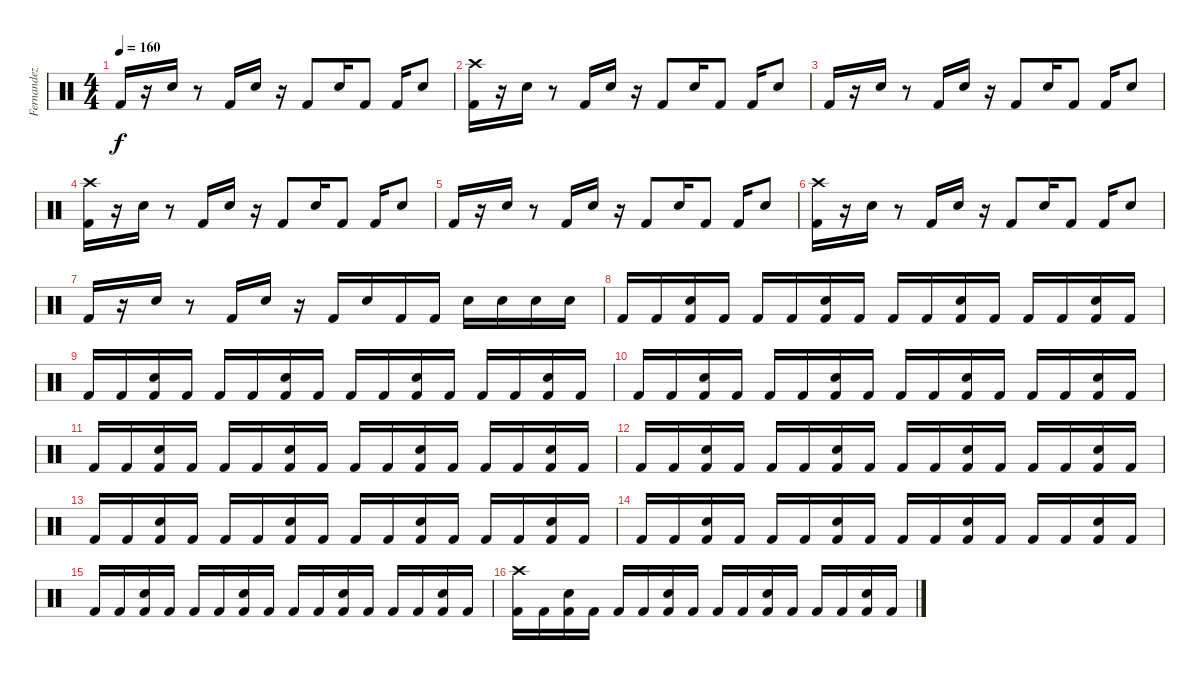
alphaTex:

\track ("Fernandez" "Fernandez") {instrument percussion}
\staff {score}
\articulation defaults
\ts (4 4)
\tempo 160
\clef neutral
\ks c "Kick (hit) 2".16{dy f}
r.16 "Snare (hit) 2".16 r.8 "Kick (hit) 2".16 "Snare (hit) 2".16 r.16 "Kick (hit) 2".8 "Snare (hit) 2".16 "Kick (hit) 2".8 "Kick (hit) 2".16 "Snare (hit) 2".8 |
("Kick (hit) 2" "Crash high (hit)").16 r.16 "Snare (hit) 2".16 r.8 "Kick (hit) 2".16 "Snare (hit) 2".16 r.16 "Kick (hit) 2".8 "Snare (hit) 2".16 "Kick (hit) 2".8 "Kick (hit) 2".16 "Snare (hit) 2".8 |
"Kick (hit) 2".16 r.16 "Snare (hit) 2".16 r.8 "Kick (hit) 2".16 "Snare (hit) 2".16 r.16 "Kick (hit) 2".8 "Snare (hit) 2".16 "Kick (hit) 2".8 "Kick (hit) 2".16 "Snare (hit) 2".8 |
("Kick (hit) 2" "Crash high (hit)").16 r.16 "Snare (hit) 2".16 r.8 "Kick (hit) 2".16 "Snare (hit) 2".16 r.16 "Kick (hit) 2".8 "Snare (hit) 2".16 "Kick (hit) 2".8 "Kick (hit) 2".16 "Snare (hit) 2".8 |
"Kick (hit) 2".16 r.16 "Snare (hit) 2".16 r.8 "Kick (hit) 2".16 "Snare (hit) 2".16 r.16 "Kick (hit) 2".8 "Snare (hit) 2".16 "Kick (hit) 2".8 "Kick (hit) 2".16 "Snare (hit) 2".8 |
("Kick (hit) 2" "Crash high (hit)").16 r.16 "Snare (hit) 2".16 r.8 "Kick (hit) 2".16 "Snare (hit) 2".16 r.16 "Kick (hit) 2".8 "Snare (hit) 2".16 "Kick (hit) 2".8 "Kick (hit) 2".16 "Snare (hit) 2".8 |
"Kick (hit) 2".16 r.16 "Snare (hit) 2".16 r.8 "Kick (hit) 2".16 "Snare (hit) 2".16 r.16 "Kick (hit) 2".16 "Snare (hit) 2".16 "Kick (hit) 2".16 "Kick (hit) 2".16 "Snare (hit) 2".16 "Snare (hit) 2".16 "Snare (hit) 2".16 "Snare (hit) 2".16 |
"Kick (hit) 2".16 "Kick (hit) 2".16 ("Snare (hit) 2" "Kick (hit) 2").16 "Kick (hit) 2".16 "Kick (hit) 2".16 "Kick (hit) 2".16 ("Snare (hit) 2" "Kick (hit) 2").16 "Kick (hit) 2".16 "Kick (hit) 2".16 "Kick (hit) 2".16 ("Snare (hit) 2" "Kick (hit) 2").16 "Kick (hit) 2".16 "Kick (hit) 2".16 "Kick (hit) 2".16 ("Snare (hit) 2" "Kick (hit) 2").16 "Kick (hit) 2".16 |
"Kick (hit) 2".16 "Kick (hit) 2".16 ("Snare (hit) 2" "Kick (hit) 2").16 "Kick (hit) 2".16 "Kick (hit) 2".16 "Kick (hit) 2".16 ("Snare (hit) 2" "Kick (hit) 2").16 "Kick (hit) 2".16 "Kick (hit) 2".16 "Kick (hit) 2".16 ("Snare (hit) 2" "Kick (hit) 2").16 "Kick (hit) 2".16 "Kick (hit) 2".16 "Kick (hit) 2".16 ("Snare (hit) 2" "Kick (hit) 2").16 "Kick (hit) 2".16 |
"Kick (hit) 2".16 "Kick (hit) 2".16 ("Snare (hit) 2" "Kick (hit) 2").16 "Kick (hit) 2".16 "Kick (hit) 2".16 "Kick (hit) 2".16 ("Snare (hit) 2" "Kick (hit) 2").16 "Kick (hit) 2".16 "Kick (hit) 2".16 "Kick (hit) 2".16 ("Snare (hit) 2" "Kick (hit) 2").16 "Kick (hit) 2".16 "Kick (hit) 2".16 "Kick (hit) 2".16 ("Snare (hit) 2" "Kick (hit) 2").16 "Kick (hit) 2".16 |
"Kick (hit) 2".16 "Kick (hit) 2".16 ("Snare (hit) 2" "Kick (hit) 2").16 "Kick (hit) 2".16 "Kick (hit) 2".16 "Kick (hit) 2".16 ("Snare (hit) 2" "Kick (hit) 2").16 "Kick (hit) 2".16 "Kick (hit) 2".16 "Kick (hit) 2".16 ("Snare (hit) 2" "Kick (hit) 2").16 "Kick (hit) 2".16 "Kick (hit) 2".16 "Kick (hit) 2".16 ("Snare (hit) 2" "Kick (hit) 2").16 "Kick (hit) 2".16 |
"Kick (hit) 2".16 "Kick (hit) 2".16 ("Snare (hit) 2" "Kick (hit) 2").16 "Kick (hit) 2".16 "Kick (hit) 2".16 "Kick (hit) 2".16 ("Snare (hit) 2" "Kick (hit) 2").16 "Kick (hit) 2".16 "Kick (hit) 2".16 "Kick (hit) 2".16 ("Snare (hit) 2" "Kick (hit) 2").16 "Kick (hit) 2".16 "Kick (hit) 2".16 "Kick (hit) 2".16 ("Snare (hit) 2" "Kick (hit) 2").16 "Kick (hit) 2".16 |
"Kick (hit) 2".16 "Kick (hit) 2".16 ("Snare (hit) 2" "Kick (hit) 2").16 "Kick (hit) 2".16 "Kick (hit) 2".16 "Kick (hit) 2".16 ("Snare (hit) 2" "Kick (hit) 2").16 "Kick (hit) 2".16 "Kick (hit) 2".16 "Kick (hit) 2".16 ("Snare (hit) 2" "Kick (hit) 2").16 "Kick (hit) 2".16 "Kick (hit) 2".16 "Kick (hit) 2".16 ("Snare (hit) 2" "Kick (hit) 2").16 "Kick (hit) 2".16 |
"Kick (hit) 2".16 "Kick (hit) 2".16 ("Snare (hit) 2" "Kick (hit) 2").16 "Kick (hit) 2".16 "Kick (hit) 2".16 "Kick (hit) 2".16 ("Snare (hit) 2" "Kick (hit) 2").16 "Kick (hit) 2".16 "Kick (hit) 2".16 "Kick (hit) 2".16 ("Snare (hit) 2" "Kick (hit) 2").16 "Kick (hit) 2".16 "Kick (hit) 2".16 "Kick (hit) 2".16 ("Snare (hit) 2" "Kick (hit) 2").16 "Kick (hit) 2".16 |
"Kick (hit) 2".16 "Kick (hit) 2".16 ("Snare (hit) 2" "Kick (hit) 2").16 "Kick (hit) 2".16 "Kick (hit) 2".16 "Kick (hit) 2".16 ("Snare (hit) 2" "Kick (hit) 2").16 "Kick (hit) 2".16 "Kick (hit) 2".16 "Kick (hit) 2".16 ("Snare (hit) 2" "Kick (hit) 2").16 "Kick (hit) 2".16 "Kick (hit) 2".16 "Kick (hit) 2".16 ("Snare (hit) 2" "Kick (hit) 2").16 "Kick (hit) 2".16 |
("Crash high (hit)" "Kick (hit) 2").16 "Kick (hit) 2".16 ("Snare (hit) 2" "Kick (hit) 2").16 "Kick (hit) 2".16 "Kick (hit) 2".16 "Kick (hit) 2".16 ("Snare (hit) 2" "Kick (hit) 2").16 "Kick (hit) 2".16 "Kick (hit) 2".16 "Kick (hit) 2".16 ("Snare (hit) 2" "Kick (hit) 2").16 "Kick (hit) 2".16 "Kick (hit) 2".16 "Kick (hit) 2".16 ("Snare (hit) 2" "Kick (hit) 2").16 "Kick (hit) 2".16
